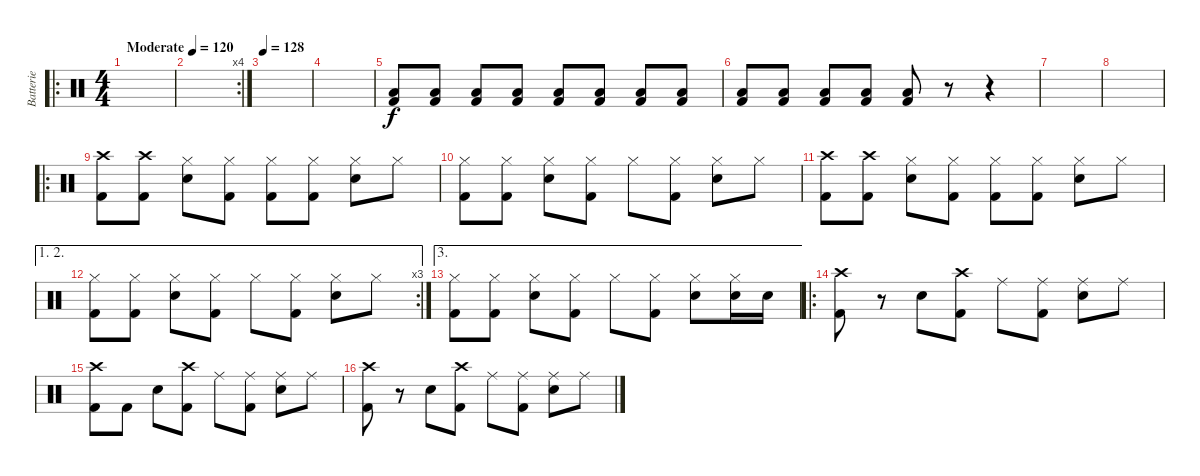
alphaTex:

\track ("Batterie" "Batterie") {instrument percussion}
\staff {score}
\articulation defaults
\ro
\ts (4 4)
\tempo (120 "Moderate")
\clef neutral
\ks c
|
\rc 4
|
\tempo 128
|
|
("Low Floor Tom (hit)" "Kick (hit) 2").8 ("Low Floor Tom (hit)" "Kick (hit) 2").8 ("Low Floor Tom (hit)" "Kick (hit) 2").8 ("Low Floor Tom (hit)" "Kick (hit) 2").8 ("Low Floor Tom (hit)" "Kick (hit) 2").8 ("Low Floor Tom (hit)" "Kick (hit) 2").8 ("Low Floor Tom (hit)" "Kick (hit) 2").8 ("Low Floor Tom (hit)" "Kick (hit) 2").8 |
("Low Floor Tom (hit)" "Kick (hit) 2").8 ("Low Floor Tom (hit)" "Kick (hit) 2").8 ("Low Floor Tom (hit)" "Kick (hit) 2").8 ("Low Floor Tom (hit)" "Kick (hit) 2").8 ("Low Floor Tom (hit)" "Kick (hit) 2").8 r.8 r.4 |
|
|
\ro
("Crash high (hit)" "Kick (hit) 2").8 ("Crash high (hit)" "Kick (hit) 2").8 ("Hi-Hat (closed)" "Snare (hit) 2").8 ("Hi-Hat (closed)" "Kick (hit) 2").8 ("Hi-Hat (closed)" "Kick (hit) 2").8 ("Hi-Hat (closed)" "Kick (hit) 2").8 ("Hi-Hat (closed)" "Snare (hit) 2").8 "Hi-Hat (closed)".8 |
("Hi-Hat (closed)" "Kick (hit) 2").8 ("Hi-Hat (closed)" "Kick (hit) 2").8 ("Hi-Hat (closed)" "Snare (hit) 2").8 ("Hi-Hat (closed)" "Kick (hit) 2").8 "Hi-Hat (closed)".8 ("Hi-Hat (closed)" "Kick (hit) 2").8 ("Hi-Hat (closed)" "Snare (hit) 2").8 "Hi-Hat (closed)".8 |
("Crash high (hit)" "Kick (hit) 2").8 ("Crash high (hit)" "Kick (hit) 2").8 ("Hi-Hat (closed)" "Snare (hit) 2").8 ("Hi-Hat (closed)" "Kick (hit) 2").8 ("Hi-Hat (closed)" "Kick (hit) 2").8 ("Hi-Hat (closed)" "Kick (hit) 2").8 ("Hi-Hat (closed)" "Snare (hit) 2").8 "Hi-Hat (closed)".8 |
\ae (1 2)
\rc 3
("Hi-Hat (closed)" "Kick (hit) 2").8 ("Hi-Hat (closed)" "Kick (hit) 2").8 ("Hi-Hat (closed)" "Snare (hit) 2").8 ("Hi-Hat (closed)" "Kick (hit) 2").8 "Hi-Hat (closed)".8 ("Hi-Hat (closed)" "Kick (hit) 2").8 ("Hi-Hat (closed)" "Snare (hit) 2").8 "Hi-Hat (closed)".8 |
\ae 3
("Hi-Hat (closed)" "Kick (hit) 2").8 ("Hi-Hat (closed)" "Kick (hit) 2").8 ("Hi-Hat (closed)" "Snare (hit) 2").8 ("Hi-Hat (closed)" "Kick (hit) 2").8 "Hi-Hat (closed)".8 ("Hi-Hat (closed)" "Kick (hit) 2").8 ("Hi-Hat (closed)" "Snare (hit) 2").8 ("Hi-Hat (closed)" "Snare (hit) 2").16 "Snare (hit) 2".16 |
\ro
("Crash high (hit)" "Kick (hit) 2").8 r.8 "Snare (hit) 2".8 ("Crash high (hit)" "Kick (hit) 2").8 "Ride (middle)".8 ("Ride (middle)" "Kick (hit) 2").8 ("Ride (middle)" "Snare (hit) 2").8 "Ride (middle)".8 |
("Crash high (hit)" "Kick (hit) 2").8 "Kick (hit) 2".8 "Snare (hit) 2".8 ("Crash high (hit)" "Kick (hit) 2").8 "Ride (middle)".8 ("Ride (middle)" "Kick (hit) 2").8 ("Ride (middle)" "Snare (hit) 2").8 "Ride (middle)".8 |
("Crash high (hit)" "Kick (hit) 2").8 r.8 "Snare (hit) 2".8 ("Crash high (hit)" "Kick (hit) 2").8 "Ride (middle)".8 ("Ride (middle)" "Kick (hit) 2").8 ("Ride (middle)" "Snare (hit) 2").8 "Ride (middle)".8
